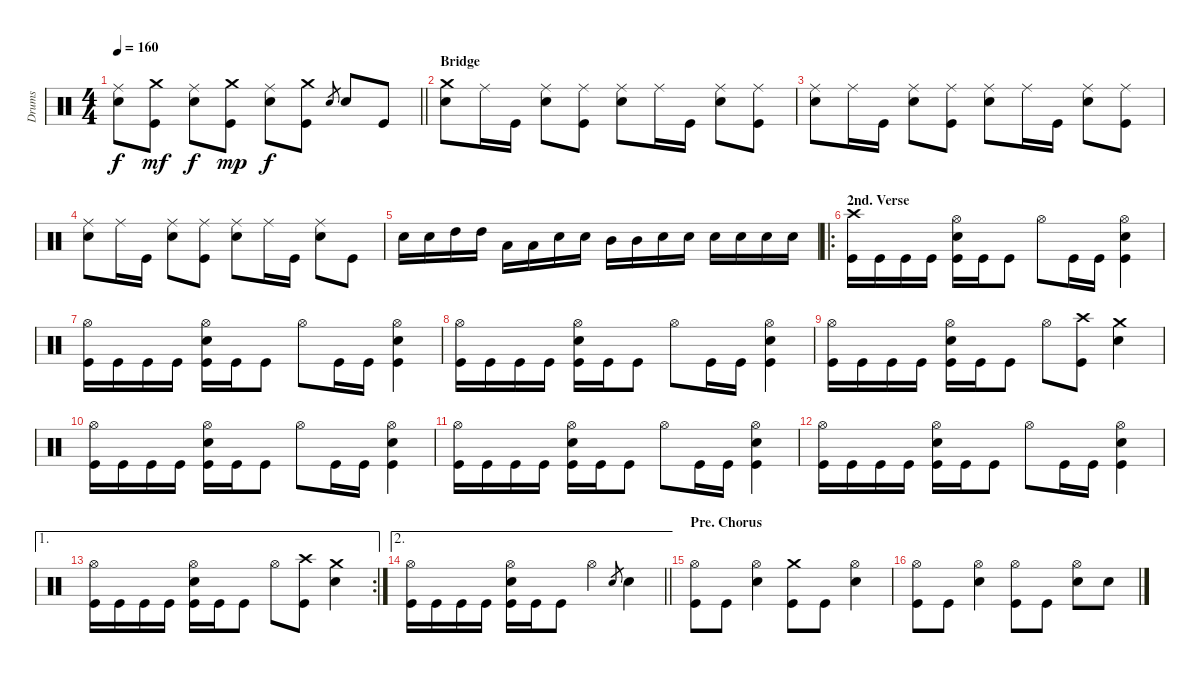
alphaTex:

\track ("Drums" "Drums") {instrument percussion}
\staff {score}
\articulation defaults
\ts (4 4)
\tempo 160
\clef neutral
\barLineRight lightlight
\ks c
("Ride (middle)" "Electric Snare (hit)").8{dy f} ("Crash medium (hit)" "Kick (hit)").8{dy mf} ("Ride (middle)" "Electric Snare (hit)").8{dy f} ("Crash medium (hit)" "Kick (hit)").8{dy mp} ("Ride (middle)" "Electric Snare (hit)").8{dy f} ("Crash medium (hit)" "Kick (hit)").8 "Electric Snare (hit)".8{gr} "Electric Snare (hit)".8 "Kick (hit)".8 |
\section ("" "Bridge")
("Crash medium (hit)" "Electric Snare (hit)").8 "Ride (middle)".16 "Kick (hit)".16 ("Ride (middle)" "Electric Snare (hit)").8 ("Ride (middle)" "Kick (hit)").8 ("Ride (middle)" "Electric Snare (hit)").8 "Ride (middle)".16 "Kick (hit)".16 ("Ride (middle)" "Electric Snare (hit)").8 ("Ride (middle)" "Kick (hit)").8 |
("Ride (middle)" "Electric Snare (hit)").8 "Ride (middle)".16 "Kick (hit)".16 ("Ride (middle)" "Electric Snare (hit)").8 ("Ride (middle)" "Kick (hit)").8 ("Ride (middle)" "Electric Snare (hit)").8 "Ride (middle)".16 "Kick (hit)".16 ("Ride (middle)" "Electric Snare (hit)").8 ("Ride (middle)" "Kick (hit)").8 |
("Ride (middle)" "Electric Snare (hit)").8 "Ride (middle)".16 "Kick (hit)".16 ("Ride (middle)" "Electric Snare (hit)").8 ("Ride (middle)" "Kick (hit)").8 ("Ride (middle)" "Electric Snare (hit)").8 "Ride (middle)".16 "Kick (hit)".16 ("Ride (middle)" "Electric Snare (hit)").8 "Kick (hit)".8 |
"Electric Snare (hit)".16 "Electric Snare (hit)".16 "High Tom (hit)".16 "High Tom (hit)".16 "Low Tom (hit)".16 "Low Tom (hit)".16 "Electric Snare (hit)".16 "Electric Snare (hit)".16 "Mid Tom (hit)".16 "Mid Tom (hit)".16 "Electric Snare (hit)".16 "Electric Snare (hit)".16 "Electric Snare (hit)".16 "Electric Snare (hit)".16 "Electric Snare (hit)".16 "Electric Snare (hit)".16 |
\ro
\section ("" "2nd. Verse")
("Crash high (hit)" "Kick (hit)").16 "Kick (hit)".16 "Kick (hit)".16 "Kick (hit)".16 ("Hi-Hat (open)" "Electric Snare (hit)" "Kick (hit)").16 "Kick (hit)".16 "Kick (hit)".8 "Hi-Hat (open)".8 "Kick (hit)".16 "Kick (hit)".16 ("Hi-Hat (open)" "Electric Snare (hit)" "Kick (hit)").4 |
("Hi-Hat (open)" "Kick (hit)").16 "Kick (hit)".16 "Kick (hit)".16 "Kick (hit)".16 ("Hi-Hat (open)" "Electric Snare (hit)" "Kick (hit)").16 "Kick (hit)".16 "Kick (hit)".8 "Hi-Hat (open)".8 "Kick (hit)".16 "Kick (hit)".16 ("Hi-Hat (open)" "Electric Snare (hit)" "Kick (hit)").4 |
("Hi-Hat (open)" "Kick (hit)").16 "Kick (hit)".16 "Kick (hit)".16 "Kick (hit)".16 ("Hi-Hat (open)" "Electric Snare (hit)" "Kick (hit)").16 "Kick (hit)".16 "Kick (hit)".8 "Hi-Hat (open)".8 "Kick (hit)".16 "Kick (hit)".16 ("Hi-Hat (open)" "Electric Snare (hit)" "Kick (hit)").4 |
("Hi-Hat (open)" "Kick (hit)").16 "Kick (hit)".16 "Kick (hit)".16 "Kick (hit)".16 ("Hi-Hat (open)" "Electric Snare (hit)" "Kick (hit)").16 "Kick (hit)".16 "Kick (hit)".8 "Hi-Hat (open)".8 ("Crash high (hit)" "Kick (hit)").8 ("Crash medium (hit)" "Electric Snare (hit)").4 |
("Hi-Hat (open)" "Kick (hit)").16 "Kick (hit)".16 "Kick (hit)".16 "Kick (hit)".16 ("Hi-Hat (open)" "Electric Snare (hit)" "Kick (hit)").16 "Kick (hit)".16 "Kick (hit)".8 "Hi-Hat (open)".8 "Kick (hit)".16 "Kick (hit)".16 ("Hi-Hat (open)" "Electric Snare (hit)" "Kick (hit)").4 |
("Hi-Hat (open)" "Kick (hit)").16 "Kick (hit)".16 "Kick (hit)".16 "Kick (hit)".16 ("Hi-Hat (open)" "Electric Snare (hit)" "Kick (hit)").16 "Kick (hit)".16 "Kick (hit)".8 "Hi-Hat (open)".8 "Kick (hit)".16 "Kick (hit)".16 ("Hi-Hat (open)" "Electric Snare (hit)" "Kick (hit)").4 |
("Hi-Hat (open)" "Kick (hit)").16 "Kick (hit)".16 "Kick (hit)".16 "Kick (hit)".16 ("Hi-Hat (open)" "Electric Snare (hit)" "Kick (hit)").16 "Kick (hit)".16 "Kick (hit)".8 "Hi-Hat (open)".8 "Kick (hit)".16 "Kick (hit)".16 ("Hi-Hat (open)" "Electric Snare (hit)" "Kick (hit)").4 |
\ae 1
\rc 2
("Hi-Hat (open)" "Kick (hit)").16 "Kick (hit)".16 "Kick (hit)".16 "Kick (hit)".16 ("Hi-Hat (open)" "Electric Snare (hit)" "Kick (hit)").16 "Kick (hit)".16 "Kick (hit)".8 "Hi-Hat (open)".8 ("Crash high (hit)" "Kick (hit)").8 ("Crash medium (hit)" "Electric Snare (hit)").4 |
\ae 2
\barLineRight lightlight
("Hi-Hat (open)" "Kick (hit)").16 "Kick (hit)".16 "Kick (hit)".16 "Kick (hit)".16 ("Hi-Hat (open)" "Electric Snare (hit)" "Kick (hit)").16 "Kick (hit)".16 "Kick (hit)".8 "Hi-Hat (open)".4 "Electric Snare (hit)".8{gr} "Electric Snare (hit)".4 |
\section ("" "Pre. Chorus")
("Hi-Hat (open)" "Kick (hit)").8 "Kick (hit)".8 ("Hi-Hat (open)" "Electric Snare (hit)").4 ("Crash medium (hit)" "Kick (hit)").8 "Kick (hit)".8 ("Hi-Hat (open)" "Electric Snare (hit)").4 |
("Hi-Hat (open)" "Kick (hit)").8 "Kick (hit)".8 ("Hi-Hat (open)" "Electric Snare (hit)").4 ("Hi-Hat (open)" "Kick (hit)").8 "Kick (hit)".8 ("Hi-Hat (open)" "Electric Snare (hit)").8 "Electric Snare (hit)".8
